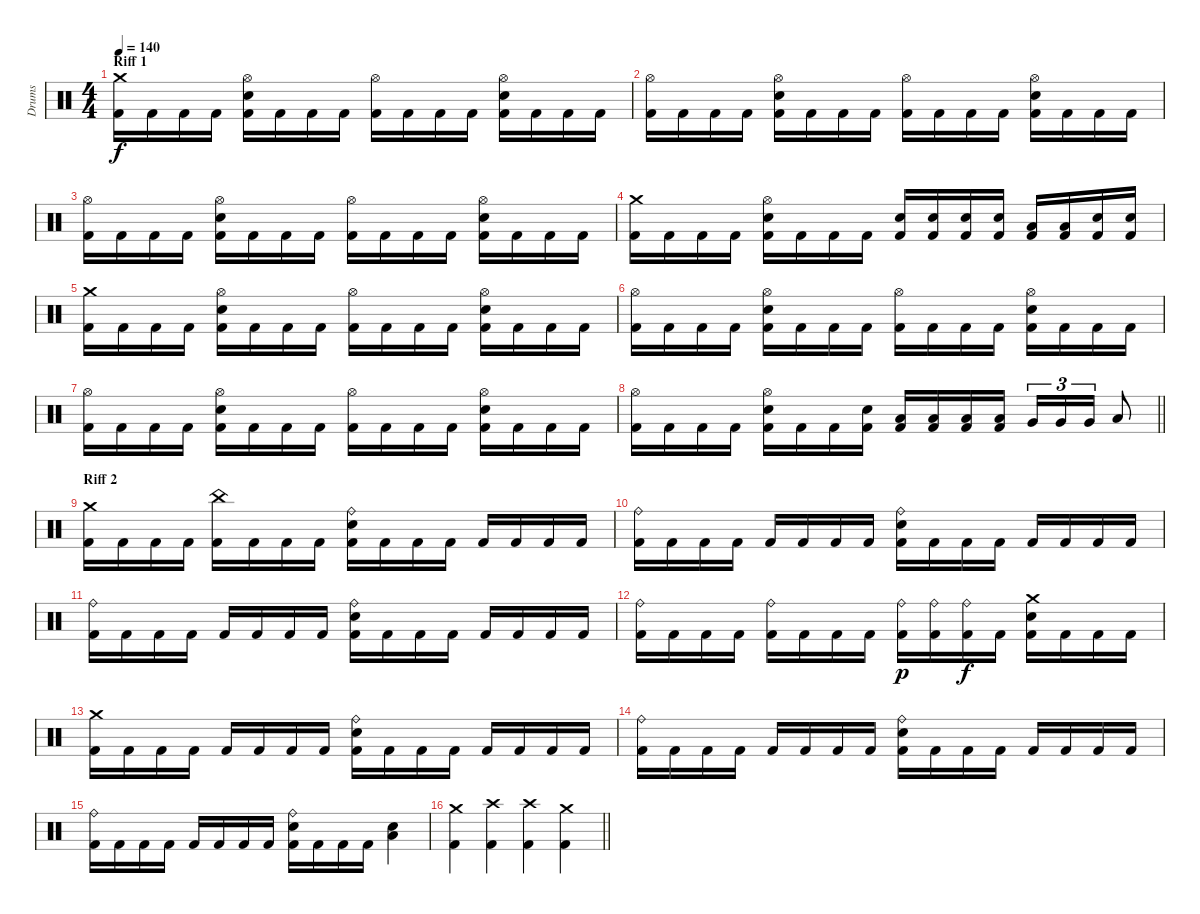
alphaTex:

\track ("Drums" "Drums") {instrument percussion}
\staff {score}
\articulation defaults
\ts (4 4)
\section ("" "Riff 1")
\tempo 140
\clef neutral
\ks c
("Crash medium (hit)" "Kick (hit) 2").16{dy f} "Kick (hit) 2".16 "Kick (hit) 2".16 "Kick (hit) 2".16 ("Kick (hit) 2" "Electric Snare (hit)" "Hi-Hat (open)").16 "Kick (hit) 2".16 "Kick (hit) 2".16 "Kick (hit) 2".16 ("Kick (hit) 2" "Hi-Hat (open)").16 "Kick (hit) 2".16 "Kick (hit) 2".16 "Kick (hit) 2".16 ("Kick (hit) 2" "Electric Snare (hit)" "Hi-Hat (open)").16 "Kick (hit) 2".16 "Kick (hit) 2".16 "Kick (hit) 2".16 |
("Kick (hit) 2" "Hi-Hat (open)").16 "Kick (hit) 2".16 "Kick (hit) 2".16 "Kick (hit) 2".16 ("Kick (hit) 2" "Electric Snare (hit)" "Hi-Hat (open)").16 "Kick (hit) 2".16 "Kick (hit) 2".16 "Kick (hit) 2".16 ("Kick (hit) 2" "Hi-Hat (open)").16 "Kick (hit) 2".16 "Kick (hit) 2".16 "Kick (hit) 2".16 ("Kick (hit) 2" "Electric Snare (hit)" "Hi-Hat (open)").16 "Kick (hit) 2".16 "Kick (hit) 2".16 "Kick (hit) 2".16 |
("Kick (hit) 2" "Hi-Hat (open)").16 "Kick (hit) 2".16 "Kick (hit) 2".16 "Kick (hit) 2".16 ("Kick (hit) 2" "Electric Snare (hit)" "Hi-Hat (open)").16 "Kick (hit) 2".16 "Kick (hit) 2".16 "Kick (hit) 2".16 ("Kick (hit) 2" "Hi-Hat (open)").16 "Kick (hit) 2".16 "Kick (hit) 2".16 "Kick (hit) 2".16 ("Kick (hit) 2" "Electric Snare (hit)" "Hi-Hat (open)").16 "Kick (hit) 2".16 "Kick (hit) 2".16 "Kick (hit) 2".16 |
("Kick (hit) 2" "Crash medium (hit)").16 "Kick (hit) 2".16 "Kick (hit) 2".16 "Kick (hit) 2".16 ("Kick (hit) 2" "Electric Snare (hit)" "Hi-Hat (open)").16 "Kick (hit) 2".16 "Kick (hit) 2".16 "Kick (hit) 2".16 ("Kick (hit) 2" "Electric Snare (hit)").16 ("Kick (hit) 2" "Electric Snare (hit)").16 ("Kick (hit) 2" "Electric Snare (hit)").16 ("Kick (hit) 2" "Electric Snare (hit)").16 ("Kick (hit) 2" "Low Tom (hit)").16 ("Kick (hit) 2" "Low Tom (hit)").16 ("Kick (hit) 2" "Electric Snare (hit)").16 ("Kick (hit) 2" "Electric Snare (hit)").16 |
("Crash medium (hit)" "Kick (hit) 2").16 "Kick (hit) 2".16 "Kick (hit) 2".16 "Kick (hit) 2".16 ("Kick (hit) 2" "Electric Snare (hit)" "Hi-Hat (open)").16 "Kick (hit) 2".16 "Kick (hit) 2".16 "Kick (hit) 2".16 ("Kick (hit) 2" "Hi-Hat (open)").16 "Kick (hit) 2".16 "Kick (hit) 2".16 "Kick (hit) 2".16 ("Kick (hit) 2" "Electric Snare (hit)" "Hi-Hat (open)").16 "Kick (hit) 2".16 "Kick (hit) 2".16 "Kick (hit) 2".16 |
("Kick (hit) 2" "Hi-Hat (open)").16 "Kick (hit) 2".16 "Kick (hit) 2".16 "Kick (hit) 2".16 ("Kick (hit) 2" "Electric Snare (hit)" "Hi-Hat (open)").16 "Kick (hit) 2".16 "Kick (hit) 2".16 "Kick (hit) 2".16 ("Kick (hit) 2" "Hi-Hat (open)").16 "Kick (hit) 2".16 "Kick (hit) 2".16 "Kick (hit) 2".16 ("Kick (hit) 2" "Electric Snare (hit)" "Hi-Hat (open)").16 "Kick (hit) 2".16 "Kick (hit) 2".16 "Kick (hit) 2".16 |
("Kick (hit) 2" "Hi-Hat (open)").16 "Kick (hit) 2".16 "Kick (hit) 2".16 "Kick (hit) 2".16 ("Kick (hit) 2" "Electric Snare (hit)" "Hi-Hat (open)").16 "Kick (hit) 2".16 "Kick (hit) 2".16 "Kick (hit) 2".16 ("Kick (hit) 2" "Hi-Hat (open)").16 "Kick (hit) 2".16 "Kick (hit) 2".16 "Kick (hit) 2".16 ("Kick (hit) 2" "Electric Snare (hit)" "Hi-Hat (open)").16 "Kick (hit) 2".16 "Kick (hit) 2".16 "Kick (hit) 2".16 |
\barLineRight lightlight
("Kick (hit) 2" "Hi-Hat (open)").16 "Kick (hit) 2".16 "Kick (hit) 2".16 "Kick (hit) 2".16 ("Kick (hit) 2" "Electric Snare (hit)" "Hi-Hat (open)").16 "Kick (hit) 2".16 "Kick (hit) 2".16 ("Kick (hit) 2" "Electric Snare (hit)").16 ("Kick (hit) 2" "Low Tom (hit)").16 ("Kick (hit) 2" "Low Tom (hit)").16 ("Kick (hit) 2" "Low Tom (hit)").16 ("Kick (hit) 2" "Low Tom (hit)").16 "Very Low Tom (hit)".16{tu (3 2)} "Very Low Tom (hit)".16{tu (3 2)} "Very Low Tom (hit)".16{tu (3 2)} "Low Floor Tom (hit)".8 |
\section ("" "Riff 2")
("Crash medium (hit)" "Kick (hit) 2").16 "Kick (hit) 2".16 "Kick (hit) 2".16 "Kick (hit) 2".16 ("China (hit)" "Kick (hit) 2").16 "Kick (hit) 2".16 "Kick (hit) 2".16 "Kick (hit) 2".16 ("Electric Snare (hit)" "Ride (bell)" "Kick (hit) 2").16 "Kick (hit) 2".16 "Kick (hit) 2".16 "Kick (hit) 2".16 "Kick (hit) 2".16 "Kick (hit) 2".16 "Kick (hit) 2".16 "Kick (hit) 2".16 |
("Ride (bell)" "Kick (hit) 2").16 "Kick (hit) 2".16 "Kick (hit) 2".16 "Kick (hit) 2".16 "Kick (hit) 2".16 "Kick (hit) 2".16 "Kick (hit) 2".16 "Kick (hit) 2".16 ("Electric Snare (hit)" "Ride (bell)" "Kick (hit) 2").16 "Kick (hit) 2".16 "Kick (hit) 2".16 "Kick (hit) 2".16 "Kick (hit) 2".16 "Kick (hit) 2".16 "Kick (hit) 2".16 "Kick (hit) 2".16 |
("Ride (bell)" "Kick (hit) 2").16 "Kick (hit) 2".16 "Kick (hit) 2".16 "Kick (hit) 2".16 "Kick (hit) 2".16 "Kick (hit) 2".16 "Kick (hit) 2".16 "Kick (hit) 2".16 ("Electric Snare (hit)" "Ride (bell)" "Kick (hit) 2").16 "Kick (hit) 2".16 "Kick (hit) 2".16 "Kick (hit) 2".16 "Kick (hit) 2".16 "Kick (hit) 2".16 "Kick (hit) 2".16 "Kick (hit) 2".16 |
("Ride (bell)" "Kick (hit) 2").16 "Kick (hit) 2".16 "Kick (hit) 2".16 "Kick (hit) 2".16 ("Ride (bell)" "Kick (hit) 2").16 "Kick (hit) 2".16 "Kick (hit) 2".16 "Kick (hit) 2".16 ("Ride (bell)" "Kick (hit) 2").16{dy p} ("Ride (bell)" "Kick (hit) 2").16 ("Ride (bell)" "Kick (hit) 2").16{dy f} "Kick (hit) 2".16 ("Kick (hit) 2" "Electric Snare (hit)" "Crash medium (hit)").16 "Kick (hit) 2".16 "Kick (hit) 2".16 "Kick (hit) 2".16 |
("Crash medium (hit)" "Kick (hit) 2").16 "Kick (hit) 2".16 "Kick (hit) 2".16 "Kick (hit) 2".16 "Kick (hit) 2".16 "Kick (hit) 2".16 "Kick (hit) 2".16 "Kick (hit) 2".16 ("Electric Snare (hit)" "Ride (bell)" "Kick (hit) 2").16 "Kick (hit) 2".16 "Kick (hit) 2".16 "Kick (hit) 2".16 "Kick (hit) 2".16 "Kick (hit) 2".16 "Kick (hit) 2".16 "Kick (hit) 2".16 |
("Ride (bell)" "Kick (hit) 2").16 "Kick (hit) 2".16 "Kick (hit) 2".16 "Kick (hit) 2".16 "Kick (hit) 2".16 "Kick (hit) 2".16 "Kick (hit) 2".16 "Kick (hit) 2".16 ("Electric Snare (hit)" "Ride (bell)" "Kick (hit) 2").16 "Kick (hit) 2".16 "Kick (hit) 2".16 "Kick (hit) 2".16 "Kick (hit) 2".16 "Kick (hit) 2".16 "Kick (hit) 2".16 "Kick (hit) 2".16 |
("Ride (bell)" "Kick (hit) 2").16 "Kick (hit) 2".16 "Kick (hit) 2".16 "Kick (hit) 2".16 "Kick (hit) 2".16 "Kick (hit) 2".16 "Kick (hit) 2".16 "Kick (hit) 2".16 ("Electric Snare (hit)" "Ride (bell)" "Kick (hit) 2").16 "Kick (hit) 2".16 "Kick (hit) 2".16 "Kick (hit) 2".16 ("Electric Snare (hit)" "Low Floor Tom (hit)").4 |
\barLineRight lightlight
("Kick (hit) 2" "Crash medium (hit)").4 ("Kick (hit) 2" "Crash high (hit)").4 ("Kick (hit) 2" "Crash high (hit)").4 ("Kick (hit) 2" "Crash medium (hit)").4
